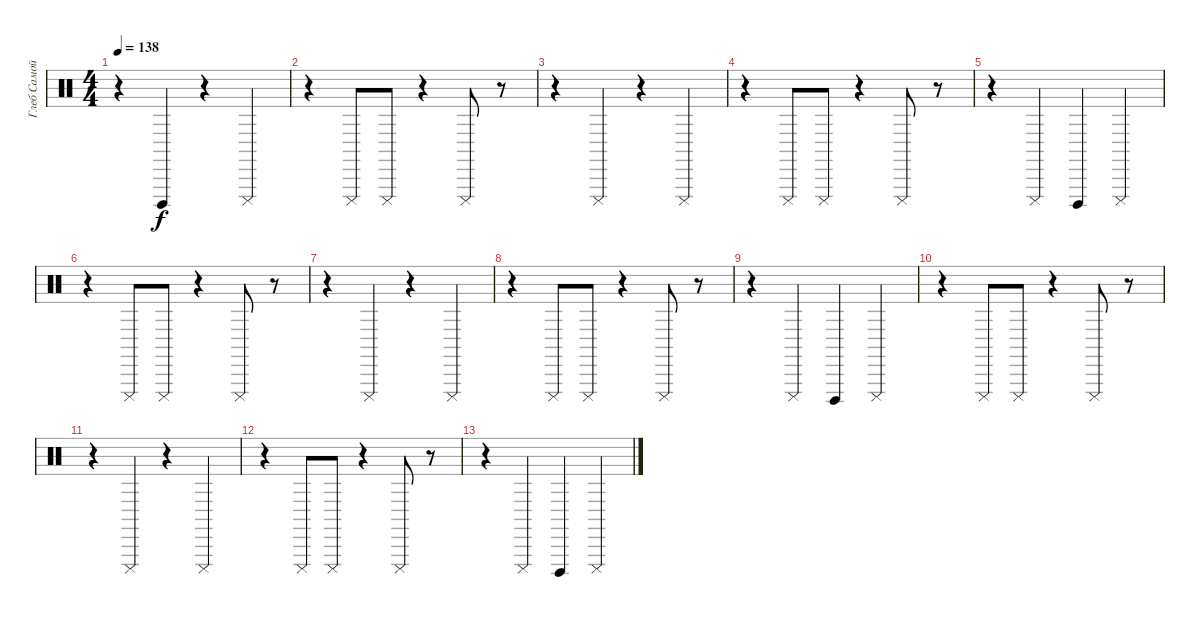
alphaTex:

\track ("Глеб Самойлов (fx)" "Глеб Самой") {instrument percussion}
\staff {score}
\articulation defaults
\ts (4 4)
\tempo 138
\clef neutral
\ks c
r.4{dy f} "Cuica (open)".4 r.4 "Cuica (mute)".4 |
r.4 "Cuica (mute)".8 "Cuica (mute)".8 r.4 "Cuica (mute)".8 r.8 |
r.4 "Cuica (mute)".4 r.4 "Cuica (mute)".4 |
r.4 "Cuica (mute)".8 "Cuica (mute)".8 r.4 "Cuica (mute)".8 r.8 |
r.4 "Cuica (mute)".4 "Cuica (open)".4 "Cuica (mute)".4 |
r.4 "Cuica (mute)".8 "Cuica (mute)".8 r.4 "Cuica (mute)".8 r.8 |
r.4 "Cuica (mute)".4 r.4 "Cuica (mute)".4 |
r.4 "Cuica (mute)".8 "Cuica (mute)".8 r.4 "Cuica (mute)".8 r.8 |
r.4 "Cuica (mute)".4 "Cuica (open)".4 "Cuica (mute)".4 |
r.4 "Cuica (mute)".8 "Cuica (mute)".8 r.4 "Cuica (mute)".8 r.8 |
r.4 "Cuica (mute)".4 r.4 "Cuica (mute)".4 |
r.4 "Cuica (mute)".8 "Cuica (mute)".8 r.4 "Cuica (mute)".8 r.8 |
r.4 "Cuica (mute)".4 "Cuica (open)".4 "Cuica (mute)".4
